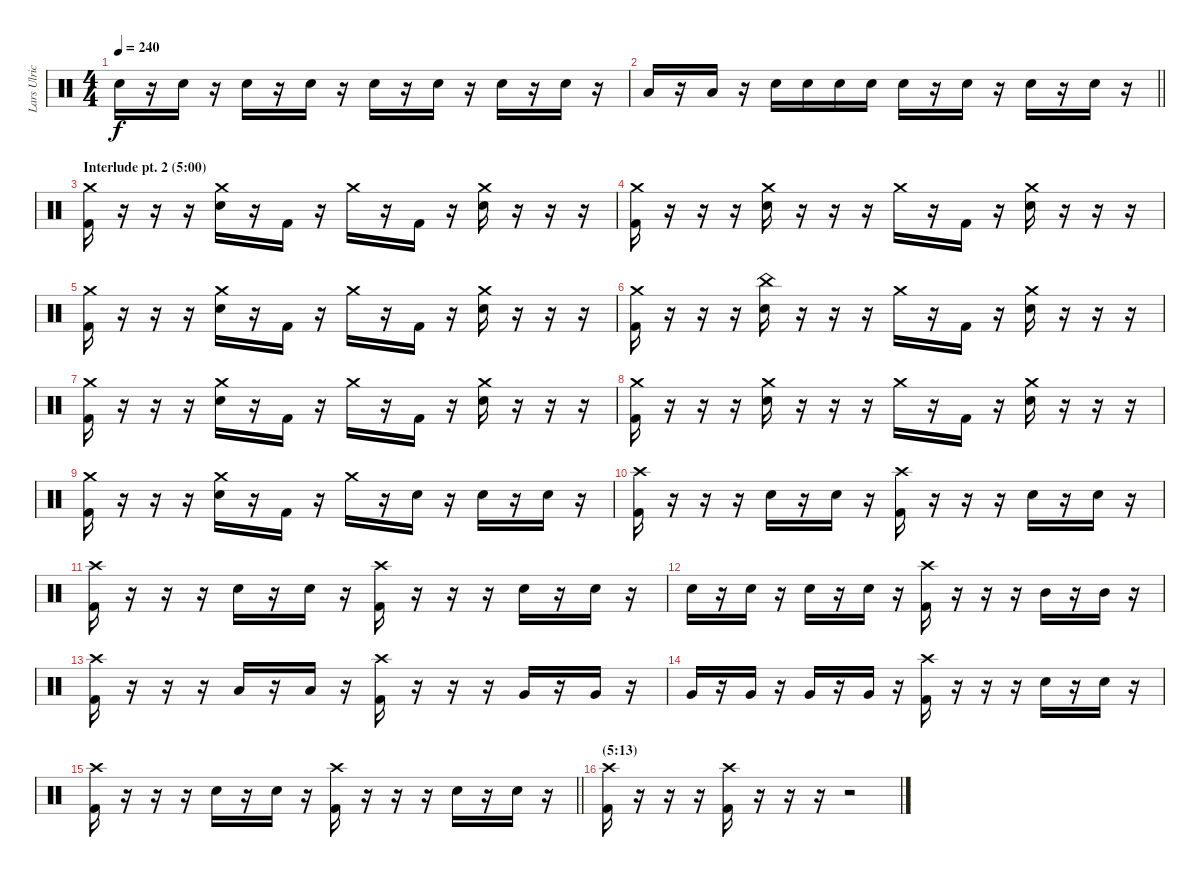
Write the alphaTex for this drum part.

\track ("Lars Ulrich" "Lars Ulric") {instrument percussion}
\staff {score}
\articulation defaults
\ts (4 4)
\tempo 240
\clef neutral
\ks c "Electric Snare (hit)".16{dy f}
r.16 "Electric Snare (hit)".16 r.16 "Electric Snare (hit)".16 r.16 "Electric Snare (hit)".16 r.16 "Electric Snare (hit)".16 r.16 "Electric Snare (hit)".16 r.16 "Electric Snare (hit)".16 r.16 "Electric Snare (hit)".16 r.16 |
\barLineRight lightlight "Low Tom (hit)".16
r.16 "Low Tom (hit)".16 r.16 "Electric Snare (hit)".16 "Electric Snare (hit)".16 "Electric Snare (hit)".16 "Electric Snare (hit)".16 "Electric Snare (hit)".16 r.16 "Electric Snare (hit)".16 r.16 "Electric Snare (hit)".16 r.16 "Electric Snare (hit)".16 r.16 |
\section ("" "Interlude pt. 2 (5:00)")
("Crash medium (hit)" "Kick (hit) 2").16 r.16 r.16 r.16 ("Electric Snare (hit)" "Crash medium (hit)").16 r.16 "Kick (hit) 2".16 r.16 "Crash medium (hit)".16 r.16 "Kick (hit) 2".16 r.16 ("Electric Snare (hit)" "Crash medium (hit)").16 r.16 r.16 r.16 |
("Crash medium (hit)" "Kick (hit) 2").16 r.16 r.16 r.16 ("Electric Snare (hit)" "Crash medium (hit)").16 r.16 r.16 r.16 "Crash medium (hit)".16 r.16 "Kick (hit) 2".16 r.16 ("Electric Snare (hit)" "Crash medium (hit)").16 r.16 r.16 r.16 |
("Crash medium (hit)" "Kick (hit) 2").16 r.16 r.16 r.16 ("Electric Snare (hit)" "Crash medium (hit)").16 r.16 "Kick (hit) 2".16 r.16 "Crash medium (hit)".16 r.16 "Kick (hit) 2".16 r.16 ("Electric Snare (hit)" "Crash medium (hit)").16 r.16 r.16 r.16 |
("Crash medium (hit)" "Kick (hit) 2").16 r.16 r.16 r.16 ("Electric Snare (hit)" "China (hit)").16 r.16 r.16 r.16 "Crash medium (hit)".16 r.16 "Kick (hit) 2".16 r.16 ("Electric Snare (hit)" "Crash medium (hit)").16 r.16 r.16 r.16 |
("Crash medium (hit)" "Kick (hit) 2").16 r.16 r.16 r.16 ("Electric Snare (hit)" "Crash medium (hit)").16 r.16 "Kick (hit) 2".16 r.16 "Crash medium (hit)".16 r.16 "Kick (hit) 2".16 r.16 ("Electric Snare (hit)" "Crash medium (hit)").16 r.16 r.16 r.16 |
("Crash medium (hit)" "Kick (hit) 2").16 r.16 r.16 r.16 ("Electric Snare (hit)" "Crash medium (hit)").16 r.16 r.16 r.16 "Crash medium (hit)".16 r.16 "Kick (hit) 2".16 r.16 ("Electric Snare (hit)" "Crash medium (hit)").16 r.16 r.16 r.16 |
("Crash medium (hit)" "Kick (hit) 2").16 r.16 r.16 r.16 ("Electric Snare (hit)" "Crash medium (hit)").16 r.16 "Kick (hit) 2".16 r.16 "Crash medium (hit)".16 r.16 "Electric Snare (hit)".16 r.16 "Electric Snare (hit)".16 r.16 "Electric Snare (hit)".16 r.16 |
("Crash high (hit)" "Kick (hit) 2").16 r.16 r.16 r.16 "Electric Snare (hit)".16 r.16 "Electric Snare (hit)".16 r.16 ("Crash high (hit)" "Kick (hit) 2").16 r.16 r.16 r.16 "Electric Snare (hit)".16 r.16 "Electric Snare (hit)".16 r.16 |
("Crash high (hit)" "Kick (hit) 2").16 r.16 r.16 r.16 "Electric Snare (hit)".16 r.16 "Electric Snare (hit)".16 r.16 ("Crash high (hit)" "Kick (hit) 2").16 r.16 r.16 r.16 "Electric Snare (hit)".16 r.16 "Electric Snare (hit)".16 r.16 |
"Electric Snare (hit)".16 r.16 "Electric Snare (hit)".16 r.16 "Electric Snare (hit)".16 r.16 "Electric Snare (hit)".16 r.16 ("Crash high (hit)" "Kick (hit) 2").16 r.16 r.16 r.16 "Mid Tom (hit)".16 r.16 "Mid Tom (hit)".16 r.16 |
("Crash high (hit)" "Kick (hit) 2").16 r.16 r.16 r.16 "Low Tom (hit)".16 r.16 "Low Tom (hit)".16 r.16 ("Crash high (hit)" "Kick (hit) 2").16 r.16 r.16 r.16 "Very Low Tom (hit)".16 r.16 "Very Low Tom (hit)".16 r.16 |
"Very Low Tom (hit)".16 r.16 "Very Low Tom (hit)".16 r.16 "Very Low Tom (hit)".16 r.16 "Very Low Tom (hit)".16 r.16 ("Crash high (hit)" "Kick (hit) 2").16 r.16 r.16 r.16 "Electric Snare (hit)".16 r.16 "Electric Snare (hit)".16 r.16 |
\barLineRight lightlight
("Crash high (hit)" "Kick (hit) 2").16 r.16 r.16 r.16 "Electric Snare (hit)".16 r.16 "Electric Snare (hit)".16 r.16 ("Crash high (hit)" "Kick (hit) 2").16 r.16 r.16 r.16 "Electric Snare (hit)".16 r.16 "Electric Snare (hit)".16 r.16 |
\section ("" "(5:13)")
("Crash high (hit)" "Kick (hit) 2").16 r.16 r.16 r.16{volume 0} ("Crash high (hit)" "Kick (hit) 2").16{volume 16} r.16 r.16 r.16{volume 0} r.2
